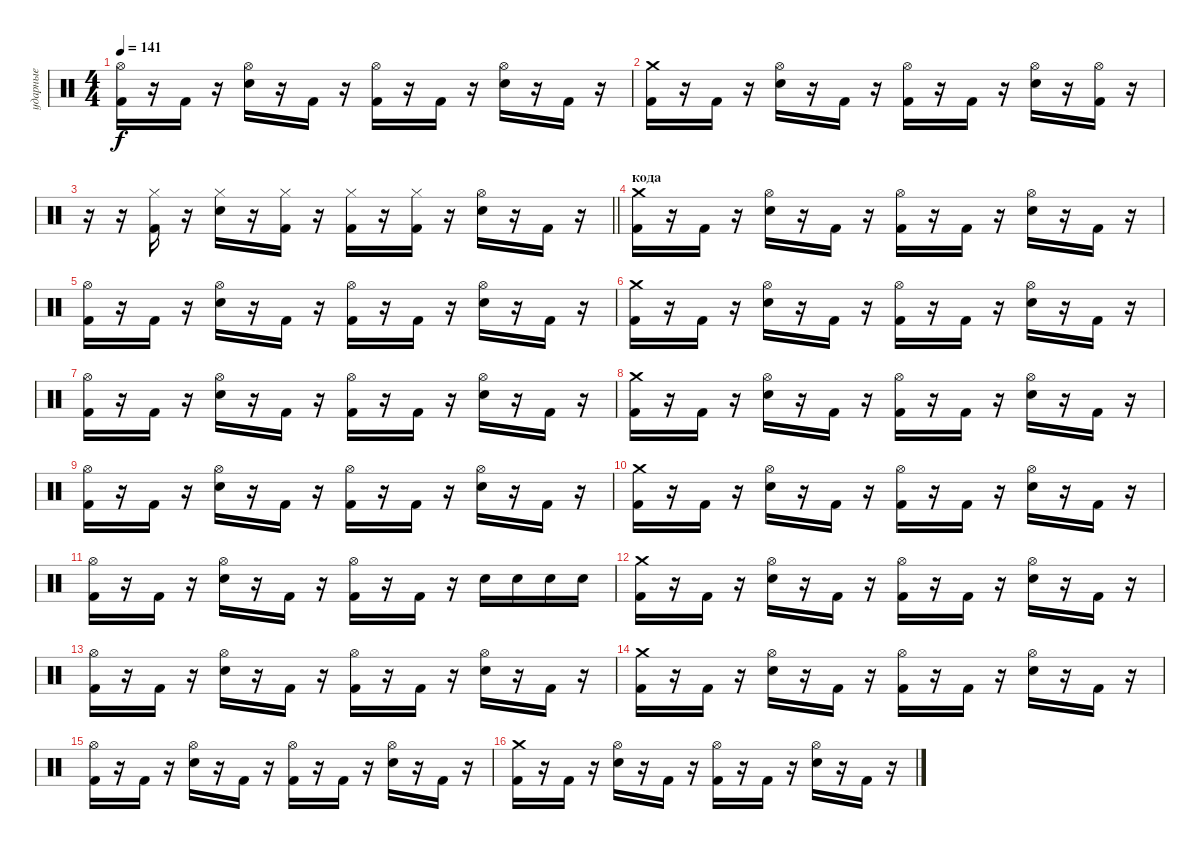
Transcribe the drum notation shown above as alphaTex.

\track ("ударные" "ударные") {instrument percussion}
\staff {score}
\articulation defaults
\ts (4 4)
\tempo 141
\clef neutral
\ks c
("Kick (hit) 2" "Hi-Hat (open)").16{dy f} r.16 "Kick (hit) 2".16 r.16 ("Snare (hit) 2" "Hi-Hat (open)").16 r.16 "Kick (hit) 2".16 r.16 ("Kick (hit) 2" "Hi-Hat (open)").16 r.16 "Kick (hit) 2".16 r.16 ("Snare (hit) 2" "Hi-Hat (open)").16 r.16 "Kick (hit) 2".16 r.16 |
("Kick (hit) 2" "Crash medium (hit)").16 r.16 "Kick (hit) 2".16 r.16 ("Snare (hit) 2" "Hi-Hat (open)").16 r.16 "Kick (hit) 2".16 r.16 ("Kick (hit) 2" "Hi-Hat (open)").16 r.16 "Kick (hit) 2".16 r.16 ("Electric Snare (hit)" "Hi-Hat (open)").16 r.16 ("Kick (hit) 2" "Hi-Hat (open)").16 r.16 |
\barLineRight lightlight
r.16 r.16 ("Kick (hit) 2" "Hi-Hat (closed)").16 r.16 ("Snare (hit) 2" "Hi-Hat (closed)").16 r.16 ("Kick (hit) 2" "Hi-Hat (closed)").16 r.16 ("Kick (hit) 2" "Hi-Hat (closed)").16 r.16 ("Kick (hit) 2" "Hi-Hat (closed)").16 r.16 ("Snare (hit) 2" "Hi-Hat (open)").16 r.16 "Kick (hit) 2".16 r.16 |
\section ("" "кода")
("Kick (hit) 2" "Crash medium (hit)").16 r.16 "Kick (hit) 2".16 r.16 ("Snare (hit) 2" "Hi-Hat (open)").16 r.16 "Kick (hit) 2".16 r.16 ("Kick (hit) 2" "Hi-Hat (open)").16 r.16 "Kick (hit) 2".16 r.16 ("Snare (hit) 2" "Hi-Hat (open)").16 r.16 "Kick (hit) 2".16 r.16 |
("Kick (hit) 2" "Hi-Hat (open)").16 r.16 "Kick (hit) 2".16 r.16 ("Snare (hit) 2" "Hi-Hat (open)").16 r.16 "Kick (hit) 2".16 r.16 ("Kick (hit) 2" "Hi-Hat (open)").16 r.16 "Kick (hit) 2".16 r.16 ("Snare (hit) 2" "Hi-Hat (open)").16 r.16 "Kick (hit) 2".16 r.16 |
("Kick (hit) 2" "Crash medium (hit)").16 r.16 "Kick (hit) 2".16 r.16 ("Snare (hit) 2" "Hi-Hat (open)").16 r.16 "Kick (hit) 2".16 r.16 ("Kick (hit) 2" "Hi-Hat (open)").16 r.16 "Kick (hit) 2".16 r.16 ("Snare (hit) 2" "Hi-Hat (open)").16 r.16 "Kick (hit) 2".16 r.16 |
("Kick (hit) 2" "Hi-Hat (open)").16 r.16 "Kick (hit) 2".16 r.16 ("Snare (hit) 2" "Hi-Hat (open)").16 r.16 "Kick (hit) 2".16 r.16 ("Kick (hit) 2" "Hi-Hat (open)").16 r.16 "Kick (hit) 2".16 r.16 ("Snare (hit) 2" "Hi-Hat (open)").16 r.16 "Kick (hit) 2".16 r.16 |
("Kick (hit) 2" "Crash medium (hit)").16 r.16 "Kick (hit) 2".16 r.16 ("Snare (hit) 2" "Hi-Hat (open)").16 r.16 "Kick (hit) 2".16 r.16 ("Kick (hit) 2" "Hi-Hat (open)").16 r.16 "Kick (hit) 2".16 r.16 ("Snare (hit) 2" "Hi-Hat (open)").16 r.16 "Kick (hit) 2".16 r.16 |
("Kick (hit) 2" "Hi-Hat (open)").16 r.16 "Kick (hit) 2".16 r.16 ("Snare (hit) 2" "Hi-Hat (open)").16 r.16 "Kick (hit) 2".16 r.16 ("Kick (hit) 2" "Hi-Hat (open)").16 r.16 "Kick (hit) 2".16 r.16 ("Snare (hit) 2" "Hi-Hat (open)").16 r.16 "Kick (hit) 2".16 r.16 |
("Kick (hit) 2" "Crash medium (hit)").16 r.16 "Kick (hit) 2".16 r.16 ("Snare (hit) 2" "Hi-Hat (open)").16 r.16 "Kick (hit) 2".16 r.16 ("Kick (hit) 2" "Hi-Hat (open)").16 r.16 "Kick (hit) 2".16 r.16 ("Snare (hit) 2" "Hi-Hat (open)").16 r.16 "Kick (hit) 2".16 r.16 |
("Kick (hit) 2" "Hi-Hat (open)").16 r.16 "Kick (hit) 2".16 r.16 ("Snare (hit) 2" "Hi-Hat (open)").16 r.16 "Kick (hit) 2".16 r.16 ("Kick (hit) 2" "Hi-Hat (open)").16 r.16 "Kick (hit) 2".16 r.16 "Snare (hit) 2".16 "Snare (hit) 2".16 "Snare (hit) 2".16 "Snare (hit) 2".16 |
("Kick (hit) 2" "Crash medium (hit)").16 r.16 "Kick (hit) 2".16 r.16 ("Snare (hit) 2" "Hi-Hat (open)").16 r.16 "Kick (hit) 2".16 r.16 ("Kick (hit) 2" "Hi-Hat (open)").16 r.16 "Kick (hit) 2".16 r.16 ("Snare (hit) 2" "Hi-Hat (open)").16 r.16 "Kick (hit) 2".16 r.16 |
("Kick (hit) 2" "Hi-Hat (open)").16 r.16 "Kick (hit) 2".16 r.16 ("Snare (hit) 2" "Hi-Hat (open)").16 r.16 "Kick (hit) 2".16 r.16 ("Kick (hit) 2" "Hi-Hat (open)").16 r.16 "Kick (hit) 2".16 r.16 ("Snare (hit) 2" "Hi-Hat (open)").16 r.16 "Kick (hit) 2".16 r.16 |
("Kick (hit) 2" "Crash medium (hit)").16 r.16 "Kick (hit) 2".16 r.16 ("Snare (hit) 2" "Hi-Hat (open)").16 r.16 "Kick (hit) 2".16 r.16 ("Kick (hit) 2" "Hi-Hat (open)").16 r.16 "Kick (hit) 2".16 r.16 ("Snare (hit) 2" "Hi-Hat (open)").16 r.16 "Kick (hit) 2".16 r.16 |
("Kick (hit) 2" "Hi-Hat (open)").16 r.16 "Kick (hit) 2".16 r.16 ("Snare (hit) 2" "Hi-Hat (open)").16 r.16 "Kick (hit) 2".16 r.16 ("Kick (hit) 2" "Hi-Hat (open)").16 r.16 "Kick (hit) 2".16 r.16 ("Snare (hit) 2" "Hi-Hat (open)").16 r.16 "Kick (hit) 2".16 r.16 |
("Kick (hit) 2" "Crash medium (hit)").16 r.16 "Kick (hit) 2".16 r.16 ("Snare (hit) 2" "Hi-Hat (open)").16 r.16 "Kick (hit) 2".16 r.16 ("Kick (hit) 2" "Hi-Hat (open)").16 r.16 "Kick (hit) 2".16 r.16 ("Snare (hit) 2" "Hi-Hat (open)").16 r.16 "Kick (hit) 2".16 r.16
